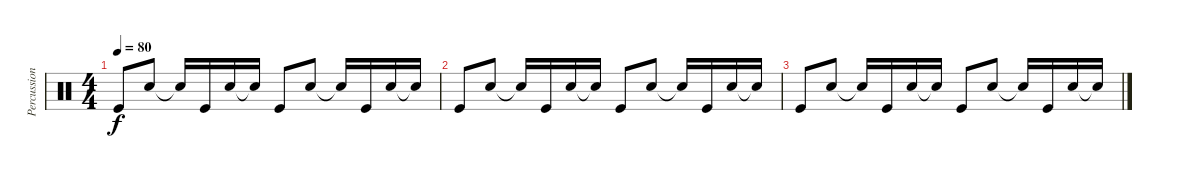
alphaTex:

\track ("Percussion" "Percussion") {instrument percussion}
\staff {score}
\articulation defaults
\ts (4 4)
\tempo 80
\clef neutral
\ks c "Kick (hit)".8{dy f} "Snare (hit) 2".8 "Snare (hit)"{t}.16 "Kick (hit)".16 "Snare (hit) 2".16 "Snare (hit)"{t}.16 "Kick (hit)".8 "Snare (hit) 2".8 "Snare (hit)"{t}.16 "Kick (hit)".16 "Snare (hit) 2".16 "Snare (hit)"{t}.16
|
"Kick (hit)".8 "Snare (hit) 2".8 "Snare (hit)"{t}.16 "Kick (hit)".16 "Snare (hit) 2".16 "Snare (hit)"{t}.16 "Kick (hit)".8 "Snare (hit) 2".8 "Snare (hit)"{t}.16 "Kick (hit)".16 "Snare (hit) 2".16 "Snare (hit)"{t}.16 |
"Kick (hit)".8 "Snare (hit) 2".8 "Snare (hit)"{t}.16 "Kick (hit)".16 "Snare (hit) 2".16 "Snare (hit)"{t}.16 "Kick (hit)".8 "Snare (hit) 2".8 "Snare (hit)"{t}.16 "Kick (hit)".16 "Snare (hit) 2".16 "Snare (hit)"{t}.16
